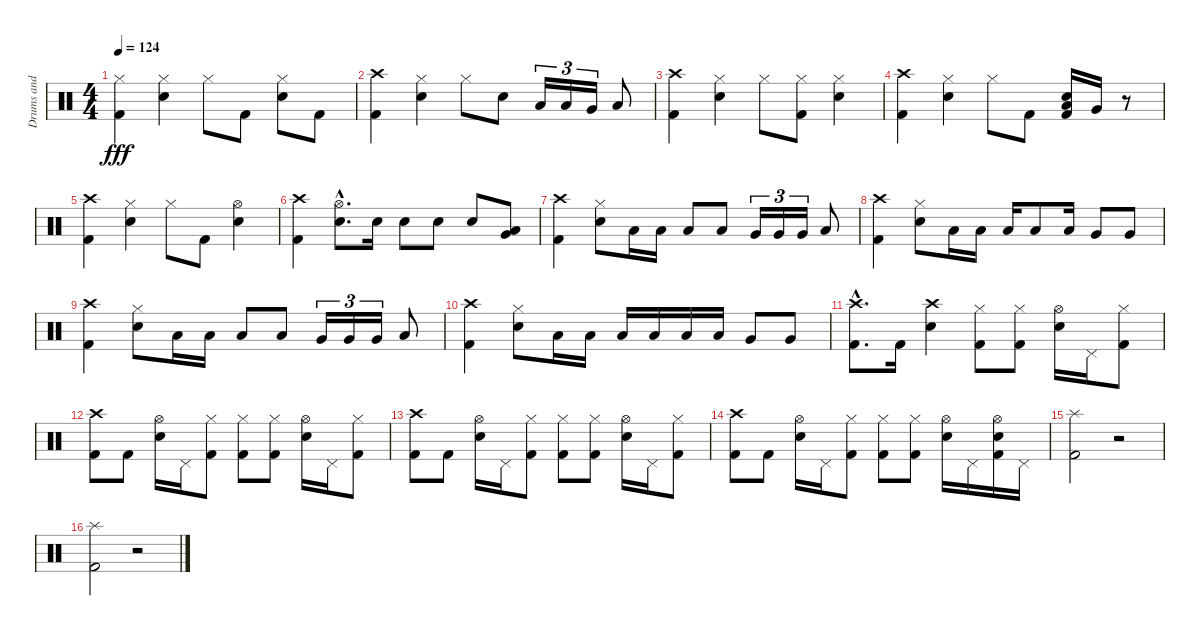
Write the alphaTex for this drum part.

\track ("Drums and percussion" "Drums and ") {instrument percussion}
\staff {score}
\articulation defaults
\ts (4 4)
\tempo 124
\clef neutral
\ks c
("Hi-Hat (closed)" "Kick (hit) 2").4{dy fff} ("Hi-Hat (closed)" "Electric Snare (hit)").4 "Hi-Hat (closed)".8 "Kick (hit) 2".8 ("Hi-Hat (closed)" "Electric Snare (hit)").8 "Kick (hit) 2".8 |
("Crash high (hit)" "Kick (hit) 2").4 ("Hi-Hat (closed)" "Electric Snare (hit)").4 "Hi-Hat (closed)".8 "Electric Snare (hit)".8 "Low Tom (hit)".16{tu (3 2)} "Low Tom (hit)".16{tu (3 2)} "Very Low Tom (hit)".16{tu (3 2)} "Low Floor Tom (hit)".8 |
("Crash high (hit)" "Kick (hit) 2").4 ("Hi-Hat (closed)" "Electric Snare (hit)").4 "Hi-Hat (closed)".8 ("Hi-Hat (closed)" "Kick (hit) 2").8 ("Hi-Hat (closed)" "Electric Snare (hit)").4 |
("Crash high (hit)" "Kick (hit) 2").4 ("Hi-Hat (closed)" "Electric Snare (hit)").4 "Hi-Hat (closed)".8 "Kick (hit) 2".8 ("Low Tom (hit)" "Electric Snare (hit)" "Kick (hit) 2").16 "Very Low Tom (hit)".16 r.8 |
("Crash high (hit)" "Kick (hit) 2").4 ("Hi-Hat (closed)" "Electric Snare (hit)").4 "Hi-Hat (closed)".8 "Kick (hit) 2".8 ("Hi-Hat (open)" "Electric Snare (hit)").4 |
("Crash high (hit)" "Kick (hit) 2").4 ("Hi-Hat (open)"{hac} "Electric Snare (hit)"{hac}).8{d} "Electric Snare (hit)".16 "Electric Snare (hit)".8 "Electric Snare (hit)".8 "Electric Snare (hit)".8 ("Very Low Tom (hit)" "Low Floor Tom (hit)").8 |
("Crash high (hit)" "Kick (hit) 2").4 ("Hi-Hat (closed)" "Electric Snare (hit)").8 "Low Tom (hit)".16 "Low Tom (hit)".16 "Low Tom (hit)".8 "Low Tom (hit)".8 "Very Low Tom (hit)".16{tu (3 2)} "Very Low Tom (hit)".16{tu (3 2)} "Very Low Tom (hit)".16{tu (3 2)} "Low Floor Tom (hit)".8 |
("Crash high (hit)" "Kick (hit) 2").4 ("Hi-Hat (closed)" "Electric Snare (hit)").8 "Low Tom (hit)".16 "Low Tom (hit)".16 "Low Tom (hit)".16 "Low Tom (hit)".8 "Low Tom (hit)".16 "Very Low Tom (hit)".8 "Very Low Tom (hit)".8 |
("Crash high (hit)" "Kick (hit) 2").4 ("Hi-Hat (closed)" "Electric Snare (hit)").8 "Low Tom (hit)".16 "Low Tom (hit)".16 "Low Tom (hit)".8 "Low Tom (hit)".8 "Very Low Tom (hit)".16{tu (3 2)} "Very Low Tom (hit)".16{tu (3 2)} "Very Low Tom (hit)".16{tu (3 2)} "Low Floor Tom (hit)".8 |
("Crash high (hit)" "Kick (hit) 2").4 ("Hi-Hat (closed)" "Electric Snare (hit)").8 "Low Tom (hit)".16 "Low Tom (hit)".16 "Low Tom (hit)".16 "Low Tom (hit)".16 "Low Tom (hit)".16 "Low Tom (hit)".16 "Very Low Tom (hit)".8 "Very Low Tom (hit)".8 |
("Crash high (hit)"{hac} "Kick (hit) 2"{hac}).8{d} "Kick (hit) 2".16 ("Crash high (hit)" "Electric Snare (hit)").4 ("Hi-Hat (closed)" "Kick (hit) 2").8 ("Hi-Hat (closed)" "Kick (hit) 2").8 ("Hi-Hat (open)" "Electric Snare (hit)").16 "Pedal Hi-Hat (hit)".16 ("Hi-Hat (closed)" "Kick (hit) 2").8 |
("Crash high (hit)" "Kick (hit) 2").8 "Kick (hit) 2".8 ("Hi-Hat (open)" "Electric Snare (hit)").16 "Pedal Hi-Hat (hit)".16 ("Hi-Hat (closed)" "Kick (hit) 2").8 ("Hi-Hat (closed)" "Kick (hit) 2").8 ("Hi-Hat (closed)" "Kick (hit) 2").8 ("Hi-Hat (open)" "Electric Snare (hit)").16 "Pedal Hi-Hat (hit)".16 ("Hi-Hat (closed)" "Kick (hit) 2").8 |
("Crash high (hit)" "Kick (hit) 2").8 "Kick (hit) 2".8 ("Hi-Hat (open)" "Electric Snare (hit)").16 "Pedal Hi-Hat (hit)".16 ("Hi-Hat (closed)" "Kick (hit) 2").8 ("Hi-Hat (closed)" "Kick (hit) 2").8 ("Hi-Hat (closed)" "Kick (hit) 2").8 ("Hi-Hat (open)" "Electric Snare (hit)").16 "Pedal Hi-Hat (hit)".16 ("Hi-Hat (closed)" "Kick (hit) 2").8 |
("Crash high (hit)" "Kick (hit) 2").8 "Kick (hit) 2".8 ("Hi-Hat (open)" "Electric Snare (hit)").16 "Pedal Hi-Hat (hit)".16 ("Hi-Hat (closed)" "Kick (hit) 2").8 ("Hi-Hat (closed)" "Kick (hit) 2").8 ("Hi-Hat (closed)" "Kick (hit) 2").8 ("Hi-Hat (open)" "Electric Snare (hit)").16 "Pedal Hi-Hat (hit)".16 ("Hi-Hat (open)" "Electric Snare (hit)" "Kick (hit) 2").16 "Pedal Hi-Hat (hit)".16 |
("Splash (hit)" "Kick (hit) 2").2 r.2 |
("Splash (hit)" "Kick (hit) 2").2 r.2
